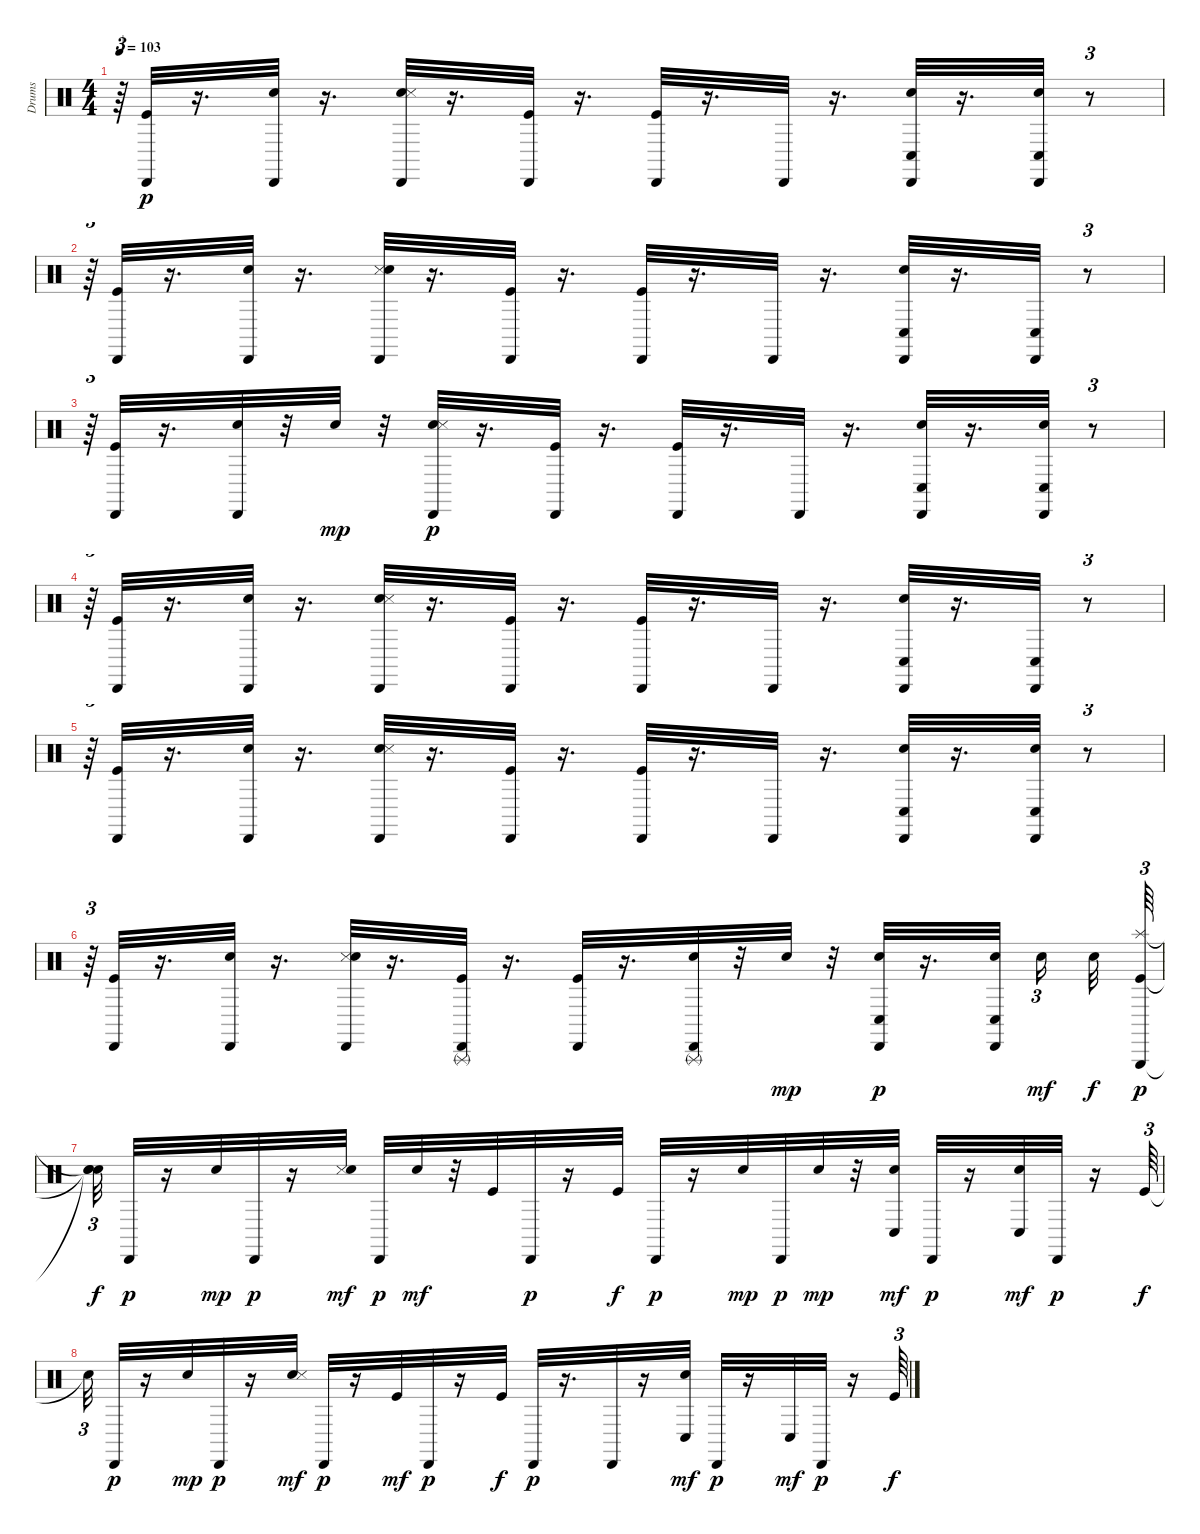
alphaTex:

\track ("Drums" "Drums") {instrument percussion}
\staff {score}
\articulation defaults
\ts (4 4)
\tempo 103
\clef neutral
\ks c
r.64{tu (3 2) dy p} ("Kick (hit)" "Cabasa (hit)").32 r.16{d} ("Snare (hit) 2" "Cabasa (hit)").32 r.16{d} ("Snare (hit) 2" "Snare (side stick) 3" "Cabasa (hit)").32 r.16{d} ("Kick (hit)" "Cabasa (hit)").32 r.16{d} ("Kick (hit)" "Cabasa (hit)").32 r.16{d} "Cabasa (hit)".32 r.16{d} ("Hand Clap (hit)" "Conga low (hit)" "Cabasa (hit)").32 r.16{d} ("Snare (hit) 2" "Conga low (hit)" "Cabasa (hit)").32 r.8{tu (3 2)} |
r.64{tu (3 2)} ("Kick (hit)" "Cabasa (hit)").32 r.16{d} ("Snare (hit) 2" "Cabasa (hit)").32 r.16{d} ("Snare (side stick) 3" "Snare (hit) 2" "Cabasa (hit)").32 r.16{d} ("Kick (hit)" "Cabasa (hit)").32 r.16{d} ("Kick (hit)" "Cabasa (hit)").32 r.16{d} "Cabasa (hit)".32 r.16{d} ("Hand Clap (hit)" "Conga low (hit)" "Cabasa (hit)").32 r.16{d} ("Conga low (hit)" "Cabasa (hit)").32 r.8{tu (3 2)} |
r.64{tu (3 2)} ("Kick (hit)" "Cabasa (hit)").32 r.16{d} ("Snare (hit) 2" "Cabasa (hit)").32 r.32 "Snare (hit) 2".32{dy mp} r.32 ("Snare (hit) 2" "Snare (side stick) 3" "Cabasa (hit)").32{dy p} r.16{d} ("Kick (hit)" "Cabasa (hit)").32 r.16{d} ("Kick (hit)" "Cabasa (hit)").32 r.16{d} "Cabasa (hit)".32 r.16{d} ("Conga low (hit)" "Hand Clap (hit)" "Cabasa (hit)").32 r.16{d} ("Snare (hit) 2" "Conga low (hit)" "Cabasa (hit)").32 r.8{tu (3 2)} |
r.64{tu (3 2)} ("Kick (hit)" "Cabasa (hit)").32 r.16{d} ("Snare (hit) 2" "Cabasa (hit)").32 r.16{d} ("Snare (hit) 2" "Snare (side stick) 3" "Cabasa (hit)").32 r.16{d} ("Kick (hit)" "Cabasa (hit)").32 r.16{d} ("Kick (hit)" "Cabasa (hit)").32 r.16{d} "Cabasa (hit)".32 r.16{d} ("Conga low (hit)" "Hand Clap (hit)" "Cabasa (hit)").32 r.16{d} ("Conga low (hit)" "Cabasa (hit)").32 r.8{tu (3 2)} |
r.64{tu (3 2)} ("Kick (hit)" "Cabasa (hit)").32 r.16{d} ("Snare (hit) 2" "Cabasa (hit)").32 r.16{d} ("Snare (hit) 2" "Snare (side stick) 3" "Cabasa (hit)").32 r.16{d} ("Kick (hit)" "Cabasa (hit)").32 r.16{d} ("Kick (hit)" "Cabasa (hit)").32 r.16{d} "Cabasa (hit)".32 r.16{d} ("Hand Clap (hit)" "Conga low (hit)" "Cabasa (hit)").32 r.16{d} ("Snare (hit) 2" "Conga low (hit)" "Cabasa (hit)").32 r.8{tu (3 2)} |
r.64{tu (3 2)} ("Kick (hit)" "Cabasa (hit)").32 r.16{d} ("Snare (hit) 2" "Cabasa (hit)").32 r.16{d} ("Snare (side stick) 3" "Snare (hit) 2" "Cabasa (hit)").32 r.16{d} ("Kick (hit)" "Triangle (rnute)" "Cabasa (hit)").32 r.16{d} ("Kick (hit)" "Cabasa (hit)").32 r.16{d} ("Triangle (rnute)" "Snare (hit) 2" "Cabasa (hit)").32 r.32 "Electric Snare (hit)".32{dy mp} r.32 ("Hand Clap (hit)" "Conga low (hit)" "Cabasa (hit)").32{dy p} r.16{d} ("Snare (hit) 2" "Conga low (hit)" "Cabasa (hit)").32 "Snare (hit) 2".16{tu (3 2) dy mf} "Snare (hit) 2".32{dy f} ("Splash (hit)" "Kick (hit)" "Triangle (hit)").64{tu (3 2) dy p} |
("Snare (hit)"{t} "Snare (hit)"{t} "Snare (hit)"{t}).32{tu (3 2) dy f} "Cabasa (hit)".32{dy p} r.16 "Snare (hit) 2".32{dy mp} "Cabasa (hit)".32{dy p} r.16 ("Snare (side stick) 3" "Snare (hit) 2").32{dy mf} "Cabasa (hit)".32{dy p} "Snare (hit) 2".32{dy mf} r.32 "Kick (hit)".32 "Cabasa (hit)".32{dy p} r.16 "Kick (hit)".32{dy f} "Cabasa (hit)".32{dy p} r.16 "Snare (hit) 2".32{dy mp} "Cabasa (hit)".32{dy p} "Snare (hit) 2".32{dy mp} r.32 ("Hand Clap (hit)" "Conga low (hit)").32{dy mf} "Cabasa (hit)".32{dy p} r.16 ("Conga low (hit)" "Snare (hit) 2").32{dy mf} "Cabasa (hit)".32{dy p} r.16 "Kick (hit)".64{tu (3 2) dy f} |
"Snare (hit)"{t}.32{tu (3 2)} "Cabasa (hit)".32{dy p} r.16 "Snare (hit) 2".32{dy mp} "Cabasa (hit)".32{dy p} r.16 ("Snare (hit) 2" "Snare (side stick) 3").32{dy mf} "Cabasa (hit)".32{dy p} r.16 "Kick (hit)".32{dy mf} "Cabasa (hit)".32{dy p} r.16 "Kick (hit)".32{dy f} "Cabasa (hit)".32{dy p} r.16{d} "Cabasa (hit)".32 r.16 ("Conga low (hit)" "Hand Clap (hit)").32{dy mf} "Cabasa (hit)".32{dy p} r.16 "Conga low (hit)".32{dy mf} "Cabasa (hit)".32{dy p} r.16 "Kick (hit)".64{tu (3 2) dy f}
